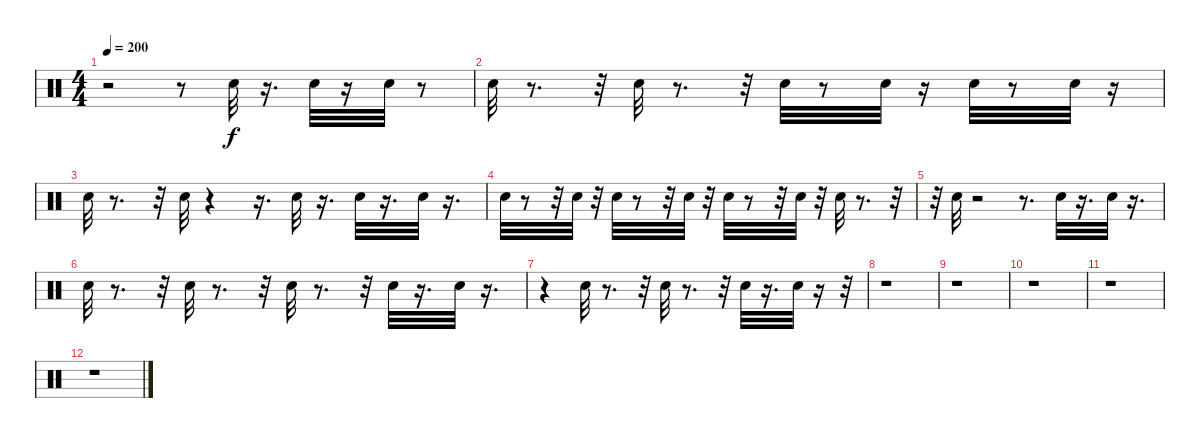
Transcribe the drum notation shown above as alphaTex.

\track "" {instrument percussion}
\staff {score}
\articulation defaults
\ts (4 4)
\tempo 200
\clef neutral
\ks c
r.2{dy f} r.8 "Snare (hit)".32 r.16{d} "Snare (hit)".32 r.16 "Snare (hit)".32 r.8 |
"Snare (hit)".32 r.8{d} r.32 "Snare (hit)".32 r.8{d} r.32 "Snare (hit)".32 r.8 "Snare (hit)".32 r.16 "Snare (hit)".32 r.8 "Snare (hit)".32 r.16 |
"Snare (hit)".32 r.8{d} r.32 "Snare (hit)".32 r.4 r.16{d} "Snare (hit)".32 r.16{d} "Snare (hit)".32 r.16{d} "Snare (hit)".32 r.16{d} |
"Snare (hit)".32 r.8 r.32 "Snare (hit)".32 r.32 "Snare (hit)".32 r.8 r.32 "Snare (hit)".32 r.32 "Snare (hit)".32 r.8 r.32 "Snare (hit)".32 r.32 "Snare (hit)".32 r.8{d} r.32 |
r.32 "Snare (hit)".32 r.2 r.8{d} "Snare (hit)".32 r.16{d} "Snare (hit)".32 r.16{d} |
"Snare (hit)".32 r.8{d} r.32 "Snare (hit)".32 r.8{d} r.32 "Snare (hit)".32 r.8{d} r.32 "Snare (hit)".32 r.16{d} "Snare (hit)".32 r.16{d} |
r.4 "Snare (hit)".32 r.8{d} r.32 "Snare (hit)".32 r.8{d} r.32 "Snare (hit)".32 r.16{d} "Snare (hit)".32 r.16 r.32 |
r.1 |
r.1 |
r.1 |
r.1 |
r.1
